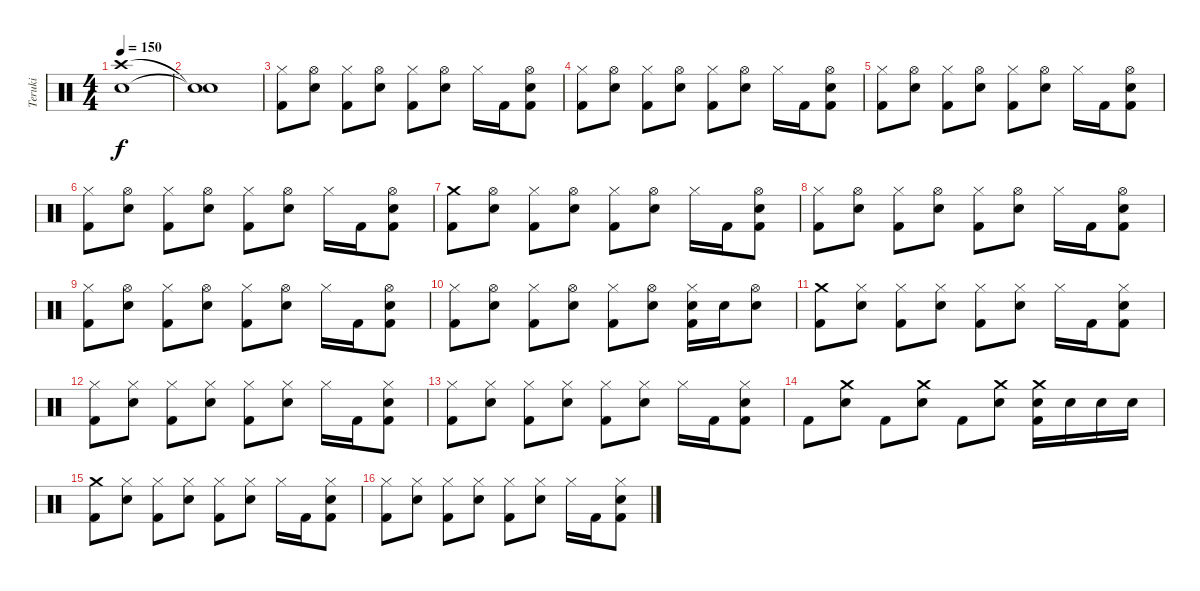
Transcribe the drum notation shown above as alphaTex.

\track ("Teruki" "Teruki") {instrument percussion}
\staff {score}
\articulation defaults
\ts (4 4)
\tempo 150
\clef neutral
\ks c
("Crash high (hit)" "Electric Snare (hit)").1{dy f} |
("Snare (hit)"{t} "Snare (hit)"{t}).1 |
("Hi-Hat (closed)" "Kick (hit) 2").8 ("Hi-Hat (open)" "Electric Snare (hit)").8 ("Hi-Hat (closed)" "Kick (hit) 2").8 ("Hi-Hat (open)" "Electric Snare (hit)").8 ("Hi-Hat (closed)" "Kick (hit) 2").8 ("Hi-Hat (open)" "Electric Snare (hit)").8 "Hi-Hat (closed)".16 "Kick (hit) 2".16 ("Hi-Hat (open)" "Electric Snare (hit)" "Kick (hit) 2").8 |
("Hi-Hat (closed)" "Kick (hit) 2").8 ("Hi-Hat (open)" "Electric Snare (hit)").8 ("Hi-Hat (closed)" "Kick (hit) 2").8 ("Hi-Hat (open)" "Electric Snare (hit)").8 ("Hi-Hat (closed)" "Kick (hit) 2").8 ("Hi-Hat (open)" "Electric Snare (hit)").8 "Hi-Hat (closed)".16 "Kick (hit) 2".16 ("Hi-Hat (open)" "Electric Snare (hit)" "Kick (hit) 2").8 |
("Hi-Hat (closed)" "Kick (hit) 2").8 ("Hi-Hat (open)" "Electric Snare (hit)").8 ("Hi-Hat (closed)" "Kick (hit) 2").8 ("Hi-Hat (open)" "Electric Snare (hit)").8 ("Hi-Hat (closed)" "Kick (hit) 2").8 ("Hi-Hat (open)" "Electric Snare (hit)").8 "Hi-Hat (closed)".16 "Kick (hit) 2".16 ("Hi-Hat (open)" "Electric Snare (hit)" "Kick (hit) 2").8 |
("Hi-Hat (closed)" "Kick (hit) 2").8 ("Hi-Hat (open)" "Electric Snare (hit)").8 ("Hi-Hat (closed)" "Kick (hit) 2").8 ("Hi-Hat (open)" "Electric Snare (hit)").8 ("Hi-Hat (closed)" "Kick (hit) 2").8 ("Hi-Hat (open)" "Electric Snare (hit)").8 "Hi-Hat (closed)".16 "Kick (hit) 2".16 ("Hi-Hat (open)" "Electric Snare (hit)" "Kick (hit) 2").8 |
("Crash medium (hit)" "Kick (hit) 2").8 ("Hi-Hat (open)" "Electric Snare (hit)").8 ("Hi-Hat (closed)" "Kick (hit) 2").8 ("Hi-Hat (open)" "Electric Snare (hit)").8 ("Hi-Hat (closed)" "Kick (hit) 2").8 ("Hi-Hat (open)" "Electric Snare (hit)").8 "Hi-Hat (closed)".16 "Kick (hit) 2".16 ("Hi-Hat (open)" "Electric Snare (hit)" "Kick (hit) 2").8 |
("Hi-Hat (closed)" "Kick (hit) 2").8 ("Hi-Hat (open)" "Electric Snare (hit)").8 ("Hi-Hat (closed)" "Kick (hit) 2").8 ("Hi-Hat (open)" "Electric Snare (hit)").8 ("Hi-Hat (closed)" "Kick (hit) 2").8 ("Hi-Hat (open)" "Electric Snare (hit)").8 "Hi-Hat (closed)".16 "Kick (hit) 2".16 ("Hi-Hat (open)" "Electric Snare (hit)" "Kick (hit) 2").8 |
("Hi-Hat (closed)" "Kick (hit) 2").8 ("Hi-Hat (open)" "Electric Snare (hit)").8 ("Hi-Hat (closed)" "Kick (hit) 2").8 ("Hi-Hat (open)" "Electric Snare (hit)").8 ("Hi-Hat (closed)" "Kick (hit) 2").8 ("Hi-Hat (open)" "Electric Snare (hit)").8 "Hi-Hat (closed)".16 "Kick (hit) 2".16 ("Hi-Hat (open)" "Electric Snare (hit)" "Kick (hit) 2").8 |
("Hi-Hat (closed)" "Kick (hit) 2").8 ("Hi-Hat (open)" "Electric Snare (hit)").8 ("Hi-Hat (closed)" "Kick (hit) 2").8 ("Hi-Hat (open)" "Electric Snare (hit)").8 ("Hi-Hat (closed)" "Kick (hit) 2").8 ("Hi-Hat (open)" "Electric Snare (hit)").8 ("Hi-Hat (closed)" "Electric Snare (hit)" "Kick (hit) 2").16 "Electric Snare (hit)".16 ("Hi-Hat (open)" "Electric Snare (hit)").8 |
("Crash medium (hit)" "Kick (hit) 2").8 ("Hi-Hat (closed)" "Electric Snare (hit)").8 ("Hi-Hat (closed)" "Kick (hit) 2").8 ("Hi-Hat (closed)" "Electric Snare (hit)").8 ("Hi-Hat (closed)" "Kick (hit) 2").8 ("Hi-Hat (closed)" "Electric Snare (hit)").8 "Hi-Hat (closed)".16 "Kick (hit) 2".16 ("Hi-Hat (closed)" "Electric Snare (hit)" "Kick (hit) 2").8 |
("Hi-Hat (closed)" "Kick (hit) 2").8 ("Hi-Hat (closed)" "Electric Snare (hit)").8 ("Hi-Hat (closed)" "Kick (hit) 2").8 ("Hi-Hat (closed)" "Electric Snare (hit)").8 ("Hi-Hat (closed)" "Kick (hit) 2").8 ("Hi-Hat (closed)" "Electric Snare (hit)").8 "Hi-Hat (closed)".16 "Kick (hit) 2".16 ("Hi-Hat (closed)" "Electric Snare (hit)" "Kick (hit) 2").8 |
("Hi-Hat (closed)" "Kick (hit) 2").8 ("Hi-Hat (closed)" "Electric Snare (hit)").8 ("Hi-Hat (closed)" "Kick (hit) 2").8 ("Hi-Hat (closed)" "Electric Snare (hit)").8 ("Hi-Hat (closed)" "Kick (hit) 2").8 ("Hi-Hat (closed)" "Electric Snare (hit)").8 "Hi-Hat (closed)".16 "Kick (hit) 2".16 ("Hi-Hat (closed)" "Electric Snare (hit)" "Kick (hit) 2").8 |
"Kick (hit) 2".8 ("Crash medium (hit)" "Electric Snare (hit)").8 "Kick (hit) 2".8 ("Crash medium (hit)" "Electric Snare (hit)").8 "Kick (hit) 2".8 ("Crash medium (hit)" "Electric Snare (hit)").8 ("Crash medium (hit)" "Electric Snare (hit)" "Kick (hit) 2").16 "Electric Snare (hit)".16 "Electric Snare (hit)".16 "Electric Snare (hit)".16 |
("Crash medium (hit)" "Kick (hit) 2").8 ("Hi-Hat (closed)" "Electric Snare (hit)").8 ("Hi-Hat (closed)" "Kick (hit) 2").8 ("Hi-Hat (closed)" "Electric Snare (hit)").8 ("Hi-Hat (closed)" "Kick (hit) 2").8 ("Hi-Hat (closed)" "Electric Snare (hit)").8 "Hi-Hat (closed)".16 "Kick (hit) 2".16 ("Hi-Hat (closed)" "Electric Snare (hit)" "Kick (hit) 2").8 |
("Hi-Hat (closed)" "Kick (hit) 2").8 ("Hi-Hat (closed)" "Electric Snare (hit)").8 ("Hi-Hat (closed)" "Kick (hit) 2").8 ("Hi-Hat (closed)" "Electric Snare (hit)").8 ("Hi-Hat (closed)" "Kick (hit) 2").8 ("Hi-Hat (closed)" "Electric Snare (hit)").8 "Hi-Hat (closed)".16 "Kick (hit) 2".16 ("Hi-Hat (closed)" "Electric Snare (hit)" "Kick (hit) 2").8
